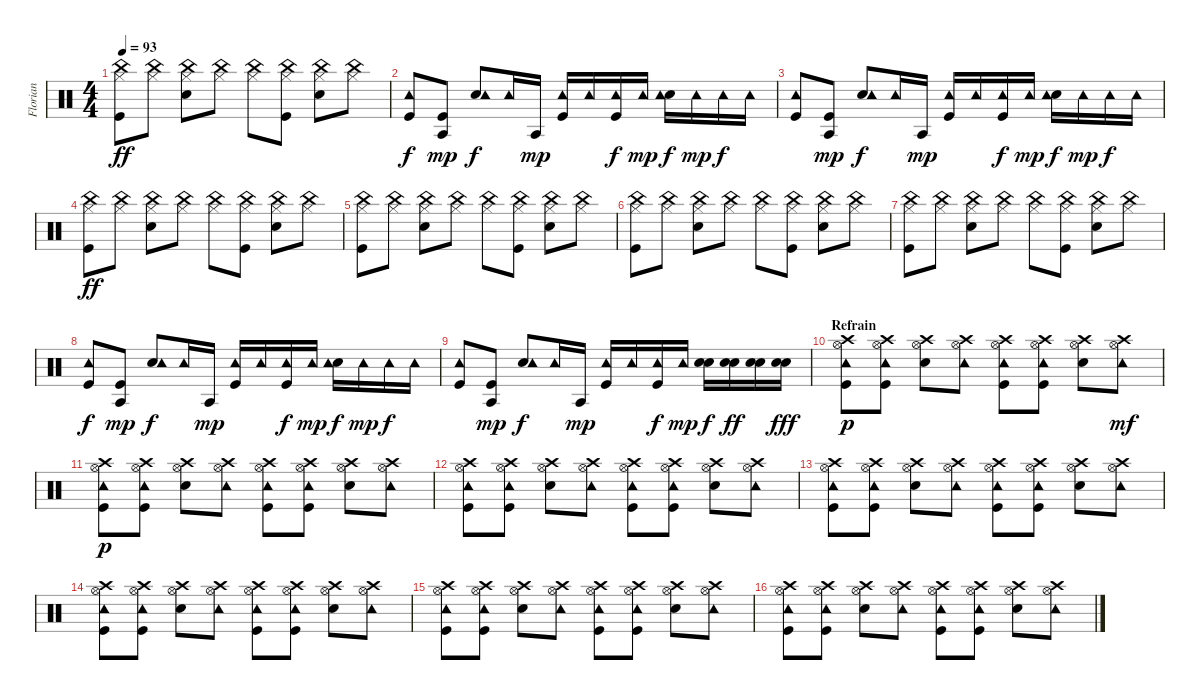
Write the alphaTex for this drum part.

\track ("Florian" "Florian") {instrument percussion}
\staff {score}
\articulation defaults
\ts (4 4)
\tempo 93
\clef neutral
\ks c
("Hi-Hat (closed)" "China (hit)" "Kick (hit)").8{dy ff} ("Hi-Hat (closed)" "China (hit)").8 ("Hi-Hat (closed)" "China (hit)" "Snare (hit) 2").8 ("Hi-Hat (closed)" "China (hit)").8 ("Hi-Hat (closed)" "China (hit)").8 ("Hi-Hat (closed)" "China (hit)" "Kick (hit)").8 ("Hi-Hat (closed)" "China (hit)" "Snare (hit) 2").8 ("Hi-Hat (closed)" "China (hit)").8 |
("Kick (hit)" "Tambourine (hit)").8{dy f} ("Kick (hit)" "Agogo tow (hit)").8{dy mp} ("Snare (hit) 2" "Tambourine (hit)").8{dy f} "Tambourine (hit)".16 "Agogo tow (hit)".16{dy mp} ("Kick (hit)" "Tambourine (hit)").16 "Tambourine (hit)".16 ("Kick (hit)" "Tambourine (hit)").16{dy f} "Tambourine (hit)".16{dy mp} ("Snare (hit) 2" "Tambourine (hit)").16{dy f} "Tambourine (hit)".16{dy mp} "Tambourine (hit)".16{dy f} "Tambourine (hit)".16 |
("Kick (hit)" "Tambourine (hit)").8 ("Kick (hit)" "Agogo tow (hit)").8{dy mp} ("Snare (hit) 2" "Tambourine (hit)").8{dy f} "Tambourine (hit)".16 "Agogo tow (hit)".16{dy mp} ("Kick (hit)" "Tambourine (hit)").16 "Tambourine (hit)".16 ("Kick (hit)" "Tambourine (hit)").16{dy f} "Tambourine (hit)".16{dy mp} ("Snare (hit) 2" "Tambourine (hit)").16{dy f} "Tambourine (hit)".16{dy mp} "Tambourine (hit)".16{dy f} "Tambourine (hit)".16 |
("Hi-Hat (closed)" "China (hit)" "Kick (hit)").8{dy ff} ("Hi-Hat (closed)" "China (hit)").8 ("Hi-Hat (closed)" "China (hit)" "Snare (hit) 2").8 ("Hi-Hat (closed)" "China (hit)").8 ("Hi-Hat (closed)" "China (hit)").8 ("Hi-Hat (closed)" "China (hit)" "Kick (hit)").8 ("Hi-Hat (closed)" "China (hit)" "Snare (hit) 2").8 ("Hi-Hat (closed)" "China (hit)").8 |
("Hi-Hat (closed)" "China (hit)" "Kick (hit)").8 ("Hi-Hat (closed)" "China (hit)").8 ("Hi-Hat (closed)" "China (hit)" "Snare (hit) 2").8 ("Hi-Hat (closed)" "China (hit)").8 ("Hi-Hat (closed)" "China (hit)").8 ("Hi-Hat (closed)" "China (hit)" "Kick (hit)").8 ("Hi-Hat (closed)" "China (hit)" "Snare (hit) 2").8 ("Hi-Hat (closed)" "China (hit)").8 |
("Hi-Hat (closed)" "China (hit)" "Kick (hit)").8 ("Hi-Hat (closed)" "China (hit)").8 ("Hi-Hat (closed)" "China (hit)" "Snare (hit) 2").8 ("Hi-Hat (closed)" "China (hit)").8 ("Hi-Hat (closed)" "China (hit)").8 ("Hi-Hat (closed)" "China (hit)" "Kick (hit)").8 ("Hi-Hat (closed)" "China (hit)" "Snare (hit) 2").8 ("Hi-Hat (closed)" "China (hit)").8 |
("Hi-Hat (closed)" "China (hit)" "Kick (hit)").8 ("Hi-Hat (closed)" "China (hit)").8 ("Hi-Hat (closed)" "China (hit)" "Snare (hit) 2").8 ("Hi-Hat (closed)" "China (hit)").8 ("Hi-Hat (closed)" "China (hit)").8 ("Hi-Hat (closed)" "China (hit)" "Kick (hit)").8 ("Hi-Hat (closed)" "China (hit)" "Snare (hit) 2").8 ("Hi-Hat (closed)" "China (hit)").8 |
("Kick (hit)" "Tambourine (hit)").8{dy f} ("Kick (hit)" "Agogo tow (hit)").8{dy mp} ("Snare (hit) 2" "Tambourine (hit)").8{dy f} "Tambourine (hit)".16 "Agogo tow (hit)".16{dy mp} ("Kick (hit)" "Tambourine (hit)").16 "Tambourine (hit)".16 ("Kick (hit)" "Tambourine (hit)").16{dy f} "Tambourine (hit)".16{dy mp} ("Snare (hit) 2" "Tambourine (hit)").16{dy f} "Tambourine (hit)".16{dy mp} "Tambourine (hit)".16{dy f} "Tambourine (hit)".16 |
("Kick (hit)" "Tambourine (hit)").8 ("Kick (hit)" "Agogo tow (hit)").8{dy mp} ("Snare (hit) 2" "Tambourine (hit)").8{dy f} "Tambourine (hit)".16 "Agogo tow (hit)".16{dy mp} ("Kick (hit)" "Tambourine (hit)").16 "Tambourine (hit)".16 ("Kick (hit)" "Tambourine (hit)").16{dy f} "Tambourine (hit)".16{dy mp} ("Snare (hit) 2" "Snare (hit) 2").16{dy f} ("Electric Snare (hit)" "Electric Snare (hit)").16{dy ff} ("Snare (hit) 2" "Snare (hit) 2").16 ("Electric Snare (hit)" "Electric Snare (hit)").16{dy fff} |
\section ("" "Refrain")
("Crash high (hit)" "Hi-Hat (open)" "Tambourine (hit)" "Kick (hit)").8{dy p volume 16} ("Crash high (hit)" "Hi-Hat (open)" "Tambourine (hit)" "Kick (hit)").8 ("Crash high (hit)" "Hi-Hat (open)" "Snare (hit) 2").8 ("Crash high (hit)" "Hi-Hat (open)" "Tambourine (hit)").8 ("Crash high (hit)" "Hi-Hat (open)" "Tambourine (hit)" "Kick (hit)").8 ("Crash high (hit)" "Hi-Hat (open)" "Tambourine (hit)" "Kick (hit)").8 ("Crash high (hit)" "Hi-Hat (open)" "Snare (hit) 2").8 ("Crash high (hit)" "Hi-Hat (open)" "Tambourine (hit)").8{dy mf} |
("Crash high (hit)" "Hi-Hat (open)" "Tambourine (hit)" "Kick (hit)").8{dy p} ("Crash high (hit)" "Hi-Hat (open)" "Tambourine (hit)" "Kick (hit)").8 ("Crash high (hit)" "Hi-Hat (open)" "Snare (hit) 2").8 ("Crash high (hit)" "Hi-Hat (open)" "Tambourine (hit)").8 ("Crash high (hit)" "Hi-Hat (open)" "Tambourine (hit)" "Kick (hit)").8 ("Crash high (hit)" "Hi-Hat (open)" "Tambourine (hit)" "Kick (hit)").8 ("Crash high (hit)" "Hi-Hat (open)" "Snare (hit) 2").8 ("Crash high (hit)" "Hi-Hat (open)" "Tambourine (hit)").8 |
("Crash high (hit)" "Hi-Hat (open)" "Tambourine (hit)" "Kick (hit)").8 ("Crash high (hit)" "Hi-Hat (open)" "Tambourine (hit)" "Kick (hit)").8 ("Crash high (hit)" "Hi-Hat (open)" "Snare (hit) 2").8 ("Crash high (hit)" "Hi-Hat (open)" "Tambourine (hit)").8 ("Crash high (hit)" "Hi-Hat (open)" "Tambourine (hit)" "Kick (hit)").8 ("Crash high (hit)" "Hi-Hat (open)" "Tambourine (hit)" "Kick (hit)").8 ("Crash high (hit)" "Hi-Hat (open)" "Snare (hit) 2").8 ("Crash high (hit)" "Hi-Hat (open)" "Tambourine (hit)").8 |
("Crash high (hit)" "Hi-Hat (open)" "Tambourine (hit)" "Kick (hit)").8 ("Crash high (hit)" "Hi-Hat (open)" "Tambourine (hit)" "Kick (hit)").8 ("Crash high (hit)" "Hi-Hat (open)" "Snare (hit) 2").8 ("Crash high (hit)" "Hi-Hat (open)" "Tambourine (hit)").8 ("Crash high (hit)" "Hi-Hat (open)" "Tambourine (hit)" "Kick (hit)").8 ("Crash high (hit)" "Hi-Hat (open)" "Tambourine (hit)" "Kick (hit)").8 ("Crash high (hit)" "Hi-Hat (open)" "Snare (hit) 2").8 ("Crash high (hit)" "Hi-Hat (open)" "Tambourine (hit)").8 |
("Crash high (hit)" "Hi-Hat (open)" "Tambourine (hit)" "Kick (hit)").8 ("Crash high (hit)" "Hi-Hat (open)" "Tambourine (hit)" "Kick (hit)").8 ("Crash high (hit)" "Hi-Hat (open)" "Snare (hit) 2").8 ("Crash high (hit)" "Hi-Hat (open)" "Tambourine (hit)").8 ("Crash high (hit)" "Hi-Hat (open)" "Tambourine (hit)" "Kick (hit)").8 ("Crash high (hit)" "Hi-Hat (open)" "Tambourine (hit)" "Kick (hit)").8 ("Crash high (hit)" "Hi-Hat (open)" "Snare (hit) 2").8 ("Crash high (hit)" "Hi-Hat (open)" "Tambourine (hit)").8 |
("Crash high (hit)" "Hi-Hat (open)" "Tambourine (hit)" "Kick (hit)").8 ("Crash high (hit)" "Hi-Hat (open)" "Tambourine (hit)" "Kick (hit)").8 ("Crash high (hit)" "Hi-Hat (open)" "Snare (hit) 2").8 ("Crash high (hit)" "Hi-Hat (open)" "Tambourine (hit)").8 ("Crash high (hit)" "Hi-Hat (open)" "Tambourine (hit)" "Kick (hit)").8 ("Crash high (hit)" "Hi-Hat (open)" "Tambourine (hit)" "Kick (hit)").8 ("Crash high (hit)" "Hi-Hat (open)" "Snare (hit) 2").8 ("Crash high (hit)" "Hi-Hat (open)" "Tambourine (hit)").8 |
("Crash high (hit)" "Hi-Hat (open)" "Tambourine (hit)" "Kick (hit)").8 ("Crash high (hit)" "Hi-Hat (open)" "Tambourine (hit)" "Kick (hit)").8 ("Crash high (hit)" "Hi-Hat (open)" "Snare (hit) 2").8 ("Crash high (hit)" "Hi-Hat (open)" "Tambourine (hit)").8 ("Crash high (hit)" "Hi-Hat (open)" "Tambourine (hit)" "Kick (hit)").8 ("Crash high (hit)" "Hi-Hat (open)" "Tambourine (hit)" "Kick (hit)").8 ("Crash high (hit)" "Hi-Hat (open)" "Snare (hit) 2").8 ("Crash high (hit)" "Hi-Hat (open)" "Tambourine (hit)").8
